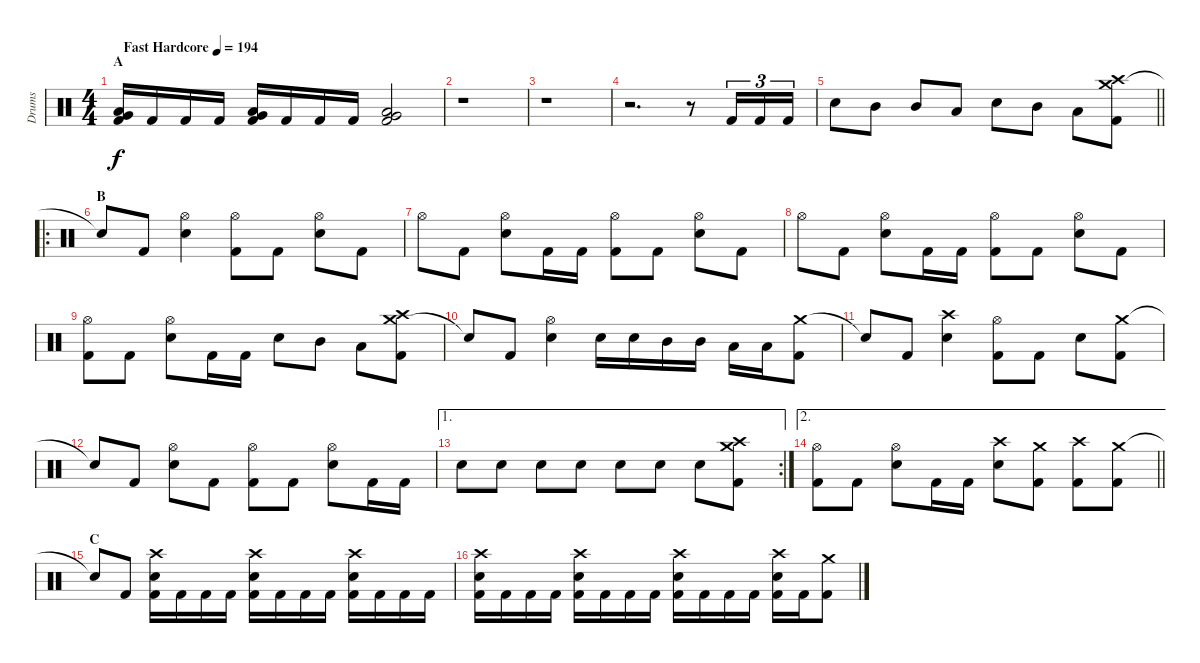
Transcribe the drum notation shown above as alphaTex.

\track ("Drums" "Drums") {instrument percussion}
\staff {score}
\articulation defaults
\ts (4 4)
\section ("" "A")
\tempo (194 "Fast Hardcore")
\clef neutral
\ks c
("Low Tom (hit)" "Very Low Tom (hit)" "Kick (hit) 2").16{dy f} "Kick (hit) 2".16 "Kick (hit) 2".16 "Kick (hit) 2".16 ("Low Tom (hit)" "Very Low Tom (hit)" "Kick (hit) 2").16 "Kick (hit) 2".16 "Kick (hit) 2".16 "Kick (hit) 2".16 ("Very Low Tom (hit)" "Low Floor Tom (hit)" "Kick (hit) 2").2 |
r.1 |
r.1 |
r.2{d} r.8 "Kick (hit) 2".16{tu (3 2)} "Kick (hit) 2".16{tu (3 2)} "Kick (hit) 2".16{tu (3 2)} |
\barLineRight lightlight "Electric Snare (hit)".8 "Mid Tom (hit)".8 "Mid Tom (hit)".8 "Low Tom (hit)".8 "Electric Snare (hit)".8 "Mid Tom (hit)".8 "Low Tom (hit)".8
("Crash medium (hit)" "Crash high (hit)" "Kick (hit) 2").8 |
\ro
\section ("" "B")
"Snare (hit)"{t}.8 "Kick (hit) 2".8 ("Hi-Hat (open)" "Electric Snare (hit)").4 ("Hi-Hat (open)" "Kick (hit) 2").8 "Kick (hit) 2".8 ("Hi-Hat (open)" "Electric Snare (hit)").8 "Kick (hit) 2".8 |
"Hi-Hat (open)".8 "Kick (hit) 2".8 ("Hi-Hat (open)" "Electric Snare (hit)").8 "Kick (hit) 2".16 "Kick (hit) 2".16 ("Hi-Hat (open)" "Kick (hit) 2").8 "Kick (hit) 2".8 ("Hi-Hat (open)" "Electric Snare (hit)").8 "Kick (hit) 2".8 |
"Hi-Hat (open)".8 "Kick (hit) 2".8 ("Hi-Hat (open)" "Electric Snare (hit)").8 "Kick (hit) 2".16 "Kick (hit) 2".16 ("Hi-Hat (open)" "Kick (hit) 2").8 "Kick (hit) 2".8 ("Hi-Hat (open)" "Electric Snare (hit)").8 "Kick (hit) 2".8 |
("Hi-Hat (open)" "Kick (hit) 2").8 "Kick (hit) 2".8 ("Hi-Hat (open)" "Electric Snare (hit)").8 "Kick (hit) 2".16 "Kick (hit) 2".16 "Electric Snare (hit)".8 "Mid Tom (hit)".8 "Low Tom (hit)".8 ("Crash medium (hit)" "Crash high (hit)" "Kick (hit) 2").8 |
"Snare (hit)"{t}.8 "Kick (hit) 2".8 ("Hi-Hat (open)" "Electric Snare (hit)").4 "Electric Snare (hit)".16 "Electric Snare (hit)".16 "Mid Tom (hit)".16 "Mid Tom (hit)".16 "Low Tom (hit)".16 "Low Tom (hit)".16 ("Crash medium (hit)" "Kick (hit) 2").8 |
"Snare (hit)"{t}.8 "Kick (hit) 2".8 ("Crash high (hit)" "Electric Snare (hit)").4 ("Hi-Hat (open)" "Kick (hit) 2").8 "Kick (hit) 2".8 "Electric Snare (hit)".8 ("Crash medium (hit)" "Kick (hit) 2").8 |
"Snare (hit)"{t}.8 "Kick (hit) 2".8 ("Hi-Hat (open)" "Electric Snare (hit)").8 "Kick (hit) 2".8 ("Hi-Hat (open)" "Kick (hit) 2").8 "Kick (hit) 2".8 ("Hi-Hat (open)" "Electric Snare (hit)").8 "Kick (hit) 2".16 "Kick (hit) 2".16 |
\ae 1
\rc 2 "Electric Snare (hit)".8 "Electric Snare (hit)".8 "Electric Snare (hit)".8 "Electric Snare (hit)".8 "Electric Snare (hit)".8 "Electric Snare (hit)".8 "Electric Snare (hit)".8
("Crash medium (hit)" "Crash high (hit)" "Kick (hit) 2").8 |
\ae 2
\barLineRight lightlight
("Hi-Hat (open)" "Kick (hit) 2").8 "Kick (hit) 2".8 ("Hi-Hat (open)" "Electric Snare (hit)").8 "Kick (hit) 2".16 "Kick (hit) 2".16 ("Crash high (hit)" "Electric Snare (hit)").8 ("Crash medium (hit)" "Kick (hit) 2").8 ("Crash high (hit)" "Kick (hit) 2").8 ("Crash medium (hit)" "Kick (hit) 2").8 |
\section ("" "C")
"Snare (hit)"{t}.8 "Kick (hit) 2".8 ("Crash high (hit)" "Electric Snare (hit)" "Kick (hit) 2").16 "Kick (hit) 2".16 "Kick (hit) 2".16 "Kick (hit) 2".16 ("Crash high (hit)" "Electric Snare (hit)" "Kick (hit) 2").16 "Kick (hit) 2".16 "Kick (hit) 2".16 "Kick (hit) 2".16 ("Crash high (hit)" "Electric Snare (hit)" "Kick (hit) 2").16 "Kick (hit) 2".16 "Kick (hit) 2".16 "Kick (hit) 2".16 |
("Crash high (hit)" "Electric Snare (hit)" "Kick (hit) 2").16 "Kick (hit) 2".16 "Kick (hit) 2".16 "Kick (hit) 2".16 ("Crash high (hit)" "Electric Snare (hit)" "Kick (hit) 2").16 "Kick (hit) 2".16 "Kick (hit) 2".16 "Kick (hit) 2".16 ("Crash high (hit)" "Electric Snare (hit)" "Kick (hit) 2").16 "Kick (hit) 2".16 "Kick (hit) 2".16 "Kick (hit) 2".16 ("Crash high (hit)" "Electric Snare (hit)" "Kick (hit) 2").16 "Kick (hit) 2".16 ("Crash medium (hit)" "Kick (hit) 2").8
